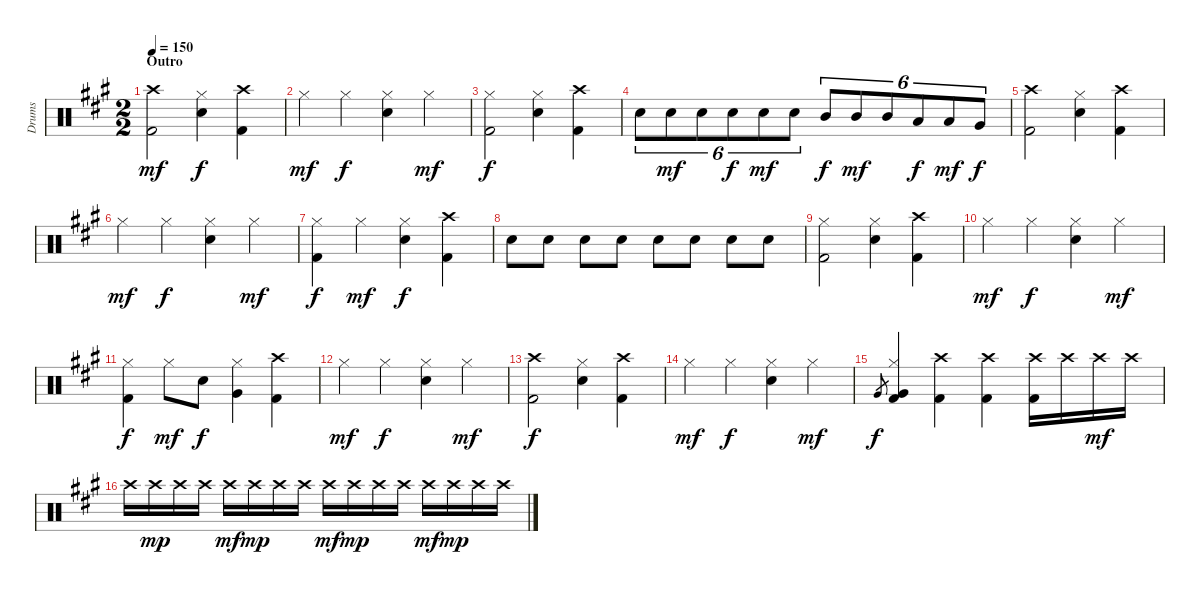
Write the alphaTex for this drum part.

\track ("Drums" "Drums") {instrument percussion}
\staff {score}
\articulation defaults
\ts (2 2)
\section ("" "Outro")
\tempo 150
\clef neutral
\ks a
("Crash high (hit)" "Kick (hit) 2").2{dy mf} ("Hi-Hat (closed)" "Electric Snare (hit)").4{dy f} ("Crash high (hit)" "Kick (hit) 2").4 |
"Hi-Hat (closed)".4{dy mf} "Hi-Hat (closed)".4{dy f} ("Hi-Hat (closed)" "Electric Snare (hit)").4 "Hi-Hat (closed)".4{dy mf} |
("Hi-Hat (closed)" "Kick (hit) 2").2{dy f} ("Hi-Hat (closed)" "Electric Snare (hit)").4 ("Crash high (hit)" "Kick (hit) 2").4 |
"Electric Snare (hit)".8{tu (6 4)} "Electric Snare (hit)".8{tu (6 4) dy mf} "Electric Snare (hit)".8{tu (6 4)} "Electric Snare (hit)".8{tu (6 4) dy f} "Electric Snare (hit)".8{tu (6 4) dy mf} "Electric Snare (hit)".8{tu (6 4)} "Mid Tom (hit)".8{tu (6 4) dy f} "Mid Tom (hit)".8{tu (6 4) dy mf} "Mid Tom (hit)".8{tu (6 4)} "Low Tom (hit)".8{tu (6 4) dy f} "Low Tom (hit)".8{tu (6 4) dy mf} "Very Low Tom (hit)".8{tu (6 4) dy f} |
("Crash high (hit)" "Kick (hit) 2").2 ("Hi-Hat (closed)" "Electric Snare (hit)").4 ("Crash high (hit)" "Kick (hit) 2").4 |
"Hi-Hat (closed)".4{dy mf} "Hi-Hat (closed)".4{dy f} ("Hi-Hat (closed)" "Electric Snare (hit)").4 "Hi-Hat (closed)".4{dy mf} |
("Hi-Hat (closed)" "Kick (hit) 2").4{dy f} "Hi-Hat (closed)".4{dy mf} ("Hi-Hat (closed)" "Electric Snare (hit)").4{dy f} ("Crash high (hit)" "Kick (hit) 2").4 |
"Electric Snare (hit)".8 "Electric Snare (hit)".8 "Electric Snare (hit)".8 "Electric Snare (hit)".8 "Electric Snare (hit)".8 "Electric Snare (hit)".8 "Electric Snare (hit)".8 "Electric Snare (hit)".8 |
("Hi-Hat (closed)" "Kick (hit) 2").2 ("Hi-Hat (closed)" "Electric Snare (hit)").4 ("Crash high (hit)" "Kick (hit) 2").4 |
"Hi-Hat (closed)".4{dy mf} "Hi-Hat (closed)".4{dy f} ("Hi-Hat (closed)" "Electric Snare (hit)").4 "Hi-Hat (closed)".4{dy mf} |
("Hi-Hat (closed)" "Kick (hit) 2").4{dy f} "Hi-Hat (closed)".8{dy mf} "Electric Snare (hit)".8{dy f} ("Hi-Hat (closed)" "Very Low Tom (hit)").4 ("Crash high (hit)" "Kick (hit) 2").4 |
"Hi-Hat (closed)".4{dy mf} "Hi-Hat (closed)".4{dy f} ("Hi-Hat (closed)" "Electric Snare (hit)").4 "Hi-Hat (closed)".4{dy mf} |
("Crash high (hit)" "Kick (hit) 2").2{dy f} ("Hi-Hat (closed)" "Electric Snare (hit)").4 ("Crash high (hit)" "Kick (hit) 2").4 |
"Hi-Hat (closed)".4{dy mf} "Hi-Hat (closed)".4{dy f} ("Hi-Hat (closed)" "Electric Snare (hit)").4 "Hi-Hat (closed)".4{dy mf} |
"Very Low Tom (hit)".8{gr dy f} ("Hi-Hat (closed)" "Very Low Tom (hit)" "Kick (hit) 2").4 ("Crash high (hit)" "Kick (hit) 2").4 ("Crash high (hit)" "Kick (hit) 2").4 ("Crash high (hit)" "Kick (hit) 2").16 "Crash high (hit)".16 "Crash high (hit)".16{dy mf} "Crash high (hit)".16 |
"Crash high (hit)".16 "Crash high (hit)".16{dy mp} "Crash high (hit)".16 "Crash high (hit)".16 "Crash high (hit)".16{dy mf} "Crash high (hit)".16{dy mp} "Crash high (hit)".16 "Crash high (hit)".16 "Crash high (hit)".16{dy mf} "Crash high (hit)".16{dy mp} "Crash high (hit)".16 "Crash high (hit)".16 "Crash high (hit)".16{dy mf} "Crash high (hit)".16{dy mp} "Crash high (hit)".16 "Crash high (hit)".16
